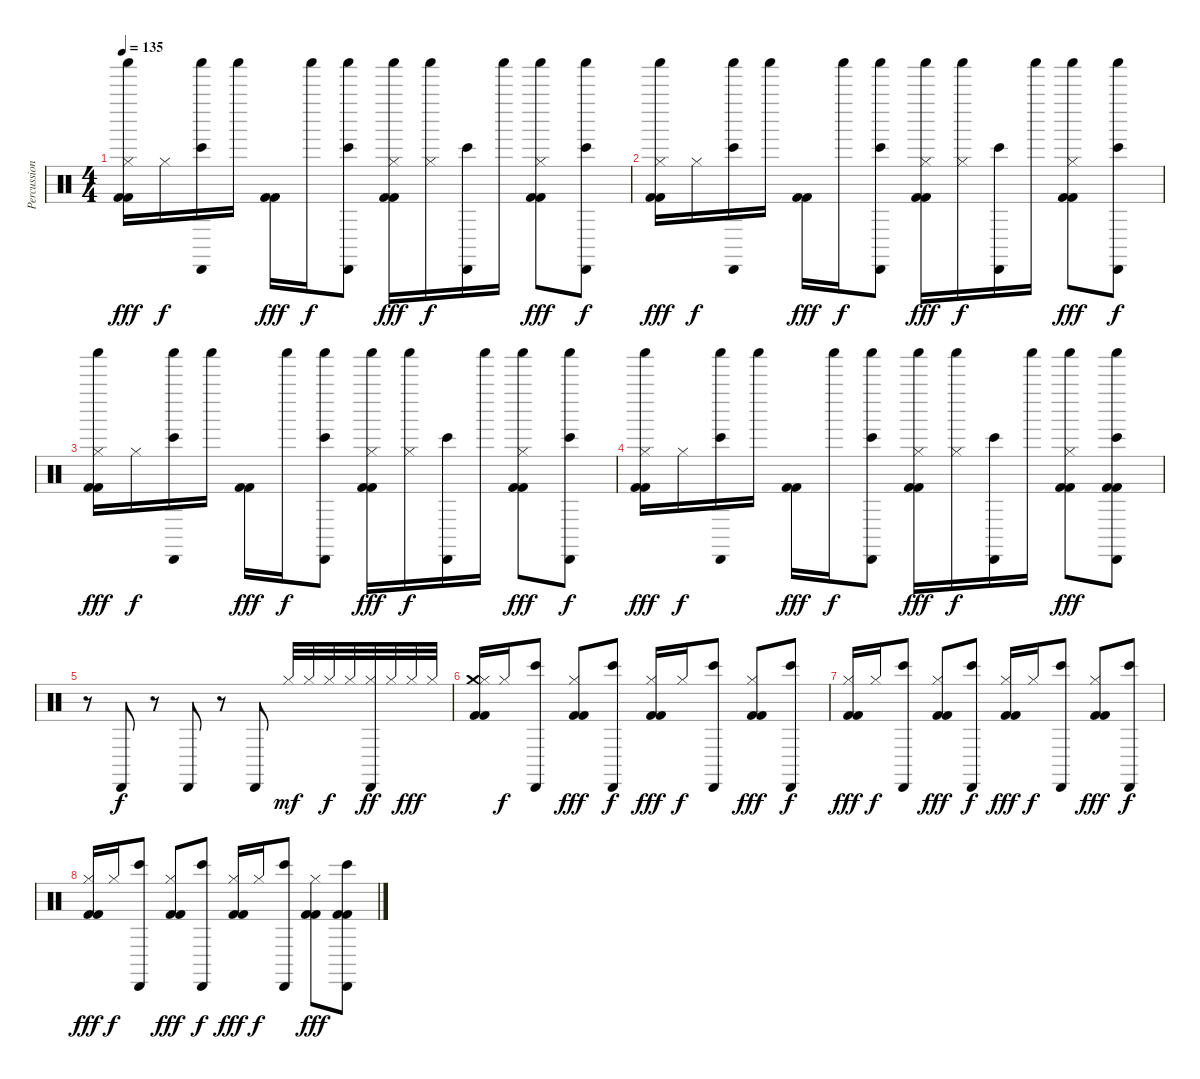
\track ("Percussion" "Percussion") {instrument percussion}
\staff {score}
\articulation defaults
\ts (4 4)
\tempo 135
\clef neutral
\ks c
("Hi-Hat (closed)" "Kick (hit) 2" "Kick (hit) 2" "Shaker (hit)").16{dy fff} "Hi-Hat (closed)".16{dy f} ("Cabasa (hit)" "Bongo High (hit)" "Shaker (hit)").16 "Shaker (hit)".16 ("Kick (hit) 2" "Kick (hit) 2").16{dy fff} "Shaker (hit)".16{dy f} ("Cabasa (hit)" "Bongo High (hit)" "Shaker (hit)").8 ("Hi-Hat (closed)" "Kick (hit) 2" "Kick (hit) 2" "Shaker (hit)").16{dy fff} ("Hi-Hat (closed)" "Shaker (hit)").16{dy f} ("Cabasa (hit)" "Bongo High (hit)").16 "Shaker (hit)".16 ("Hi-Hat (closed)" "Kick (hit) 2" "Kick (hit) 2" "Shaker (hit)").8{dy fff} ("Cabasa (hit)" "Bongo High (hit)" "Shaker (hit)").8{dy f} |
("Hi-Hat (closed)" "Kick (hit) 2" "Kick (hit) 2" "Shaker (hit)").16{dy fff} "Hi-Hat (closed)".16{dy f} ("Cabasa (hit)" "Bongo High (hit)" "Shaker (hit)").16 "Shaker (hit)".16 ("Kick (hit) 2" "Kick (hit) 2").16{dy fff} "Shaker (hit)".16{dy f} ("Cabasa (hit)" "Bongo High (hit)" "Shaker (hit)").8 ("Hi-Hat (closed)" "Kick (hit) 2" "Kick (hit) 2" "Shaker (hit)").16{dy fff} ("Hi-Hat (closed)" "Shaker (hit)").16{dy f} ("Cabasa (hit)" "Bongo High (hit)").16 "Shaker (hit)".16 ("Hi-Hat (closed)" "Kick (hit) 2" "Kick (hit) 2" "Shaker (hit)").8{dy fff} ("Cabasa (hit)" "Bongo High (hit)" "Shaker (hit)").8{dy f} |
("Hi-Hat (closed)" "Kick (hit) 2" "Kick (hit) 2" "Shaker (hit)").16{dy fff} "Hi-Hat (closed)".16{dy f} ("Cabasa (hit)" "Bongo High (hit)" "Shaker (hit)").16 "Shaker (hit)".16 ("Kick (hit) 2" "Kick (hit) 2").16{dy fff} "Shaker (hit)".16{dy f} ("Cabasa (hit)" "Bongo High (hit)" "Shaker (hit)").8 ("Hi-Hat (closed)" "Kick (hit) 2" "Kick (hit) 2" "Shaker (hit)").16{dy fff} ("Hi-Hat (closed)" "Shaker (hit)").16{dy f} ("Cabasa (hit)" "Bongo High (hit)").16 "Shaker (hit)".16 ("Hi-Hat (closed)" "Kick (hit) 2" "Kick (hit) 2" "Shaker (hit)").8{dy fff} ("Cabasa (hit)" "Bongo High (hit)" "Shaker (hit)").8{dy f} |
("Hi-Hat (closed)" "Kick (hit) 2" "Kick (hit) 2" "Shaker (hit)").16{dy fff} "Hi-Hat (closed)".16{dy f} ("Cabasa (hit)" "Bongo High (hit)" "Shaker (hit)").16 "Shaker (hit)".16 ("Kick (hit) 2" "Kick (hit) 2").16{dy fff} "Shaker (hit)".16{dy f} ("Cabasa (hit)" "Bongo High (hit)" "Shaker (hit)").8 ("Hi-Hat (closed)" "Kick (hit) 2" "Kick (hit) 2" "Shaker (hit)").16{dy fff} ("Hi-Hat (closed)" "Shaker (hit)").16{dy f} ("Cabasa (hit)" "Bongo High (hit)").16 "Shaker (hit)".16 ("Hi-Hat (closed)" "Kick (hit) 2" "Kick (hit) 2" "Shaker (hit)").8{dy fff} ("Cabasa (hit)" "Bongo High (hit)" "Kick (hit) 2" "Kick (hit) 2" "Shaker (hit)").8 |
r.8 "Cabasa (hit)".8{dy f} r.8 "Cabasa (hit)".8 r.8 "Cabasa (hit)".8 "Hi-Hat (closed)".32{dy mf} "Hi-Hat (closed)".32 "Hi-Hat (closed)".32{dy f} "Hi-Hat (closed)".32 ("Hi-Hat (closed)" "Cabasa (hit)").32{dy ff} "Hi-Hat (closed)".32 "Hi-Hat (closed)".32{dy fff} "Hi-Hat (closed)".32 |
("Crash medium (hit)" "Hi-Hat (closed)" "Kick (hit) 2" "Kick (hit) 2").16 "Hi-Hat (closed)".16{dy f} ("Cabasa (hit)" "Bongo High (hit)").8 ("Hi-Hat (closed)" "Kick (hit) 2" "Kick (hit) 2").8{dy fff} ("Cabasa (hit)" "Bongo High (hit)").8{dy f} ("Hi-Hat (closed)" "Kick (hit) 2" "Kick (hit) 2").16{dy fff} "Hi-Hat (closed)".16{dy f} ("Cabasa (hit)" "Bongo High (hit)").8 ("Hi-Hat (closed)" "Kick (hit) 2" "Kick (hit) 2").8{dy fff} ("Cabasa (hit)" "Bongo High (hit)").8{dy f} |
("Hi-Hat (closed)" "Kick (hit) 2" "Kick (hit) 2").16{dy fff} "Hi-Hat (closed)".16{dy f} ("Cabasa (hit)" "Bongo High (hit)").8 ("Hi-Hat (closed)" "Kick (hit) 2" "Kick (hit) 2").8{dy fff} ("Cabasa (hit)" "Bongo High (hit)").8{dy f} ("Hi-Hat (closed)" "Kick (hit) 2" "Kick (hit) 2").16{dy fff} "Hi-Hat (closed)".16{dy f} ("Cabasa (hit)" "Bongo High (hit)").8 ("Hi-Hat (closed)" "Kick (hit) 2" "Kick (hit) 2").8{dy fff} ("Cabasa (hit)" "Bongo High (hit)").8{dy f} |
("Hi-Hat (closed)" "Kick (hit) 2" "Kick (hit) 2").16{dy fff} "Hi-Hat (closed)".16{dy f} ("Cabasa (hit)" "Bongo High (hit)").8 ("Hi-Hat (closed)" "Kick (hit) 2" "Kick (hit) 2").8{dy fff} ("Cabasa (hit)" "Bongo High (hit)").8{dy f} ("Hi-Hat (closed)" "Kick (hit) 2" "Kick (hit) 2").16{dy fff} "Hi-Hat (closed)".16{dy f} ("Cabasa (hit)" "Bongo High (hit)").8 ("Hi-Hat (closed)" "Kick (hit) 2" "Kick (hit) 2").8{dy fff} ("Cabasa (hit)" "Bongo High (hit)" "Kick (hit) 2" "Kick (hit) 2").8
